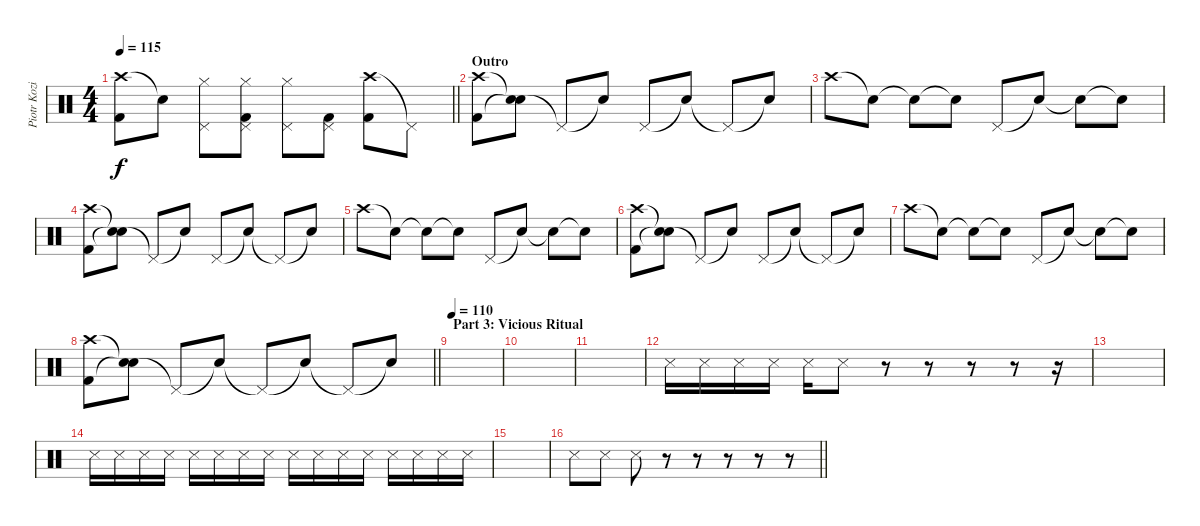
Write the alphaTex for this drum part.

\track ("Piotr Kozieradzki" "Piotr Kozi") {instrument percussion}
\staff {score}
\articulation defaults
\ts (4 4)
\tempo 115
\clef neutral
\barLineRight lightlight
\ks c
("Crash high (hit)" "Kick (hit) 2").8{dy f} "Snare (hit)"{t}.8 ("Pedal Hi-Hat (hit)" "Hi-Hat (closed)").8 ("Pedal Hi-Hat (hit)" "Hi-Hat (closed)" "Kick (hit) 2").8 ("Pedal Hi-Hat (hit)" "Hi-Hat (closed)").8 ("Pedal Hi-Hat (hit)" "Kick (hit) 2").8 ("Crash high (hit)" "Kick (hit) 2").8 "Pedal Hi-Hat (hit)"{t}.8 |
\section ("" "Outro")
("Crash high (hit)" "Kick (hit) 2").8 ("Snare (hit)"{t} "Snare (hit)"{t}).8 "Pedal Hi-Hat (hit)"{t}.8 "Snare (hit)"{t}.8 "Pedal Hi-Hat (hit)".8 "Snare (hit)"{t}.8 "Pedal Hi-Hat (hit)"{t}.8 "Snare (hit)"{t}.8 |
"Crash high (hit)".8 "Snare (hit)"{t}.8 "Snare (hit)"{t}.8 "Snare (hit)"{t}.8 "Pedal Hi-Hat (hit)".8 "Snare (hit)"{t}.8 "Snare (hit)"{t}.8 "Snare (hit)"{t}.8 |
("Crash high (hit)" "Kick (hit) 2").8 ("Snare (hit)"{t} "Snare (hit)"{t}).8 "Pedal Hi-Hat (hit)"{t}.8 "Snare (hit)"{t}.8 "Pedal Hi-Hat (hit)".8 "Snare (hit)"{t}.8 "Pedal Hi-Hat (hit)"{t}.8 "Snare (hit)"{t}.8 |
"Crash high (hit)".8 "Snare (hit)"{t}.8 "Snare (hit)"{t}.8 "Snare (hit)"{t}.8 "Pedal Hi-Hat (hit)".8 "Snare (hit)"{t}.8 "Snare (hit)"{t}.8 "Snare (hit)"{t}.8 |
("Crash high (hit)" "Kick (hit) 2").8 ("Snare (hit)"{t} "Snare (hit)"{t}).8 "Pedal Hi-Hat (hit)"{t}.8 "Snare (hit)"{t}.8 "Pedal Hi-Hat (hit)".8 "Snare (hit)"{t}.8 "Pedal Hi-Hat (hit)"{t}.8 "Snare (hit)"{t}.8 |
"Crash high (hit)".8 "Snare (hit)"{t}.8 "Snare (hit)"{t}.8 "Snare (hit)"{t}.8 "Pedal Hi-Hat (hit)".8 "Snare (hit)"{t}.8 "Snare (hit)"{t}.8 "Snare (hit)"{t}.8 |
\barLineRight lightlight
("Crash high (hit)" "Kick (hit) 2").8 ("Snare (hit)"{t} "Snare (hit)"{t}).8 "Pedal Hi-Hat (hit)"{t}.8 "Snare (hit)"{t}.8 "Pedal Hi-Hat (hit)"{t}.8 "Snare (hit)"{t}.8 "Pedal Hi-Hat (hit)"{t}.8 "Snare (hit)"{t}.8 |
\section ("" "Part 3: Vicious Ritual")
\tempo 110
|
|
|
"Snare (side stick) 3".16{volume 8} "Snare (side stick) 3".16 "Snare (side stick) 3".16 "Snare (side stick) 3".16 "Snare (side stick) 3".16 "Snare (side stick) 3".8{volume 7} r.8 r.8 r.8 r.8 r.16 |
|
"Snare (side stick) 3".16{volume 6} "Snare (side stick) 3".16 "Snare (side stick) 3".16 "Snare (side stick) 3".16 "Snare (side stick) 3".16 "Snare (side stick) 3".16 "Snare (side stick) 3".16 "Snare (side stick) 3".16 "Snare (side stick) 3".16 "Snare (side stick) 3".16 "Snare (side stick) 3".16 "Snare (side stick) 3".16 "Snare (side stick) 3".16 "Snare (side stick) 3".16 "Snare (side stick) 3".16 "Snare (side stick) 3".16 |
|
\barLineRight lightlight "Snare (side stick) 3".8{volume 13} "Snare (side stick) 3".8 "Snare (side stick) 3".8
r.8 r.8 r.8 r.8 r.8
